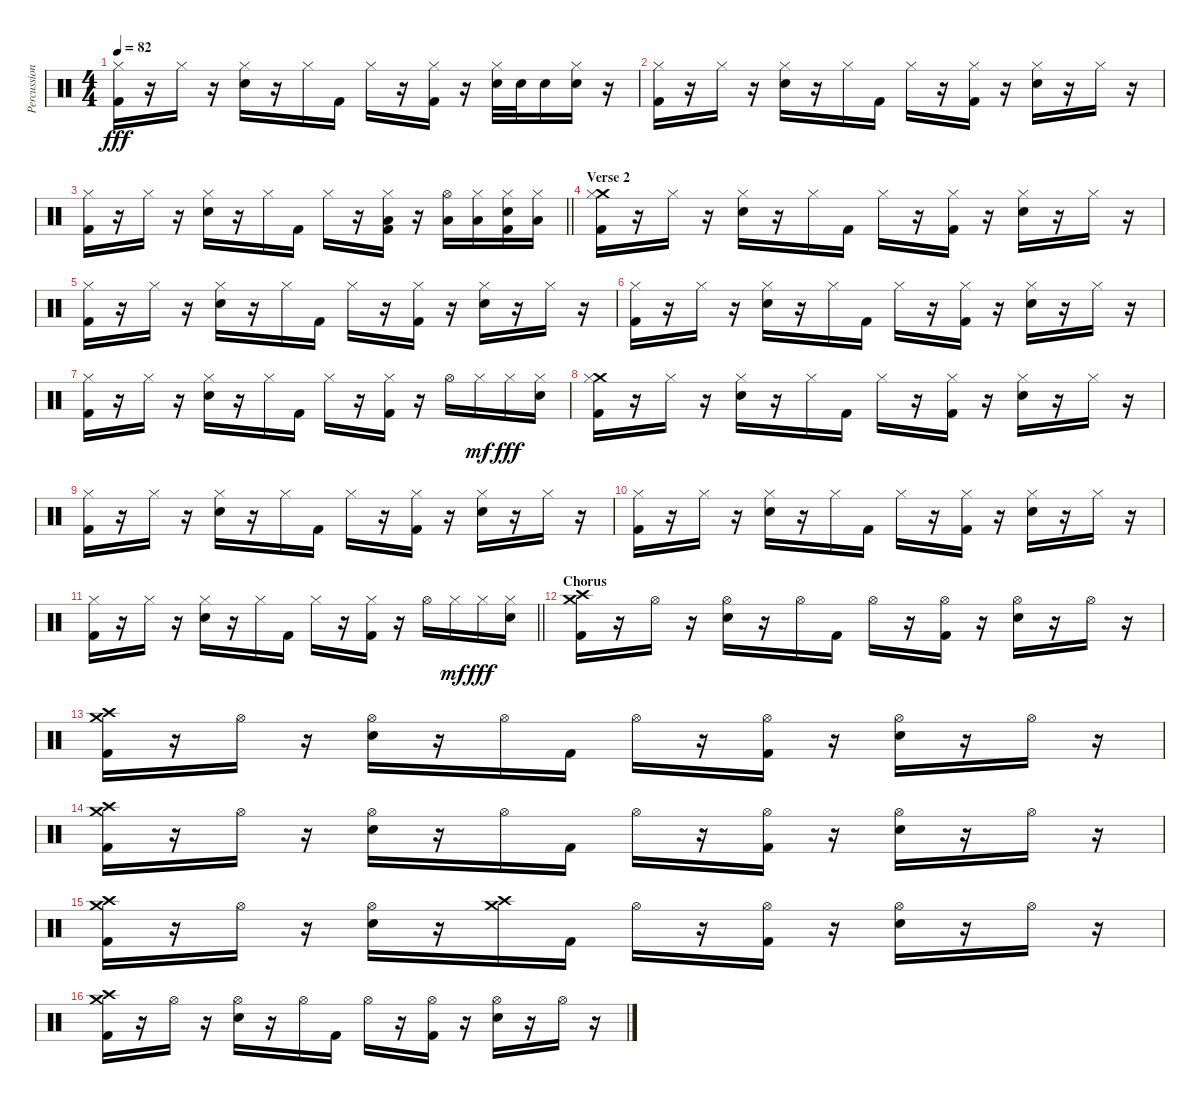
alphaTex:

\track ("Percussion" "Percussion") {instrument percussion}
\staff {score}
\articulation defaults
\ts (4 4)
\tempo 82
\clef neutral
\ks c
("Hi-Hat (closed)" "Kick (hit) 2").16{dy fff} r.16 "Hi-Hat (closed)".16 r.16 ("Hi-Hat (closed)" "Snare (hit) 2").16 r.16 "Hi-Hat (closed)".16 "Kick (hit) 2".16 "Hi-Hat (closed)".16 r.16 ("Hi-Hat (closed)" "Kick (hit) 2").16 r.16 ("Hi-Hat (closed)" "Snare (hit) 2").32 "Snare (hit) 2".32 "Snare (hit) 2".16 ("Hi-Hat (closed)" "Snare (hit) 2").16 r.16 |
("Hi-Hat (closed)" "Kick (hit) 2").16 r.16 "Hi-Hat (closed)".16 r.16 ("Hi-Hat (closed)" "Snare (hit) 2").16 r.16 "Hi-Hat (closed)".16 "Kick (hit) 2".16 "Hi-Hat (closed)".16 r.16 ("Hi-Hat (closed)" "Kick (hit) 2").16 r.16 ("Hi-Hat (closed)" "Snare (hit) 2").16 r.16 "Hi-Hat (closed)".16 r.16 |
\barLineRight lightlight
("Hi-Hat (closed)" "Kick (hit) 2").16 r.16 "Hi-Hat (closed)".16 r.16 ("Hi-Hat (closed)" "Snare (hit) 2").16 r.16 "Hi-Hat (closed)".16 "Kick (hit) 2".16 "Hi-Hat (closed)".16 r.16 ("Hi-Hat (closed)" "Low Floor Tom (hit)" "Kick (hit) 2").16 r.16 ("Hi-Hat (open)" "Low Tom (hit)").16 ("Hi-Hat (closed)" "Low Floor Tom (hit)").16 ("Hi-Hat (closed)" "Snare (hit) 2" "Kick (hit) 2").16 ("Hi-Hat (closed)" "Low Tom (hit)").16 |
\section ("" "Verse 2")
("Crash medium (hit)" "Hi-Hat (closed)" "Kick (hit) 2").16 r.16 "Hi-Hat (closed)".16 r.16 ("Hi-Hat (closed)" "Snare (hit) 2").16 r.16 "Hi-Hat (closed)".16 "Kick (hit) 2".16 "Hi-Hat (closed)".16 r.16 ("Hi-Hat (closed)" "Kick (hit) 2").16 r.16 ("Hi-Hat (closed)" "Snare (hit) 2").16 r.16 "Hi-Hat (closed)".16 r.16 |
("Hi-Hat (closed)" "Kick (hit) 2").16 r.16 "Hi-Hat (closed)".16 r.16 ("Hi-Hat (closed)" "Snare (hit) 2").16 r.16 "Hi-Hat (closed)".16 "Kick (hit) 2".16 "Hi-Hat (closed)".16 r.16 ("Hi-Hat (closed)" "Kick (hit) 2").16 r.16 ("Hi-Hat (closed)" "Snare (hit) 2").16 r.16 "Hi-Hat (closed)".16 r.16 |
("Hi-Hat (closed)" "Kick (hit) 2").16 r.16 "Hi-Hat (closed)".16 r.16 ("Hi-Hat (closed)" "Snare (hit) 2").16 r.16 "Hi-Hat (closed)".16 "Kick (hit) 2".16 "Hi-Hat (closed)".16 r.16 ("Hi-Hat (closed)" "Kick (hit) 2").16 r.16 ("Hi-Hat (closed)" "Snare (hit) 2").16 r.16 "Hi-Hat (closed)".16 r.16 |
("Hi-Hat (closed)" "Kick (hit) 2").16 r.16 "Hi-Hat (closed)".16 r.16 ("Hi-Hat (closed)" "Snare (hit) 2").16 r.16 "Hi-Hat (closed)".16 "Kick (hit) 2".16 "Hi-Hat (closed)".16 r.16 ("Hi-Hat (closed)" "Kick (hit) 2").16 r.16 "Hi-Hat (open)".16 "Hi-Hat (closed)".16{dy mf} "Hi-Hat (closed)".16{dy fff} ("Hi-Hat (closed)" "Snare (hit) 2").16 |
("Crash medium (hit)" "Hi-Hat (closed)" "Kick (hit) 2").16 r.16 "Hi-Hat (closed)".16 r.16 ("Hi-Hat (closed)" "Snare (hit) 2").16 r.16 "Hi-Hat (closed)".16 "Kick (hit) 2".16 "Hi-Hat (closed)".16 r.16 ("Hi-Hat (closed)" "Kick (hit) 2").16 r.16 ("Hi-Hat (closed)" "Snare (hit) 2").16 r.16 "Hi-Hat (closed)".16 r.16 |
("Hi-Hat (closed)" "Kick (hit) 2").16 r.16 "Hi-Hat (closed)".16 r.16 ("Hi-Hat (closed)" "Snare (hit) 2").16 r.16 "Hi-Hat (closed)".16 "Kick (hit) 2".16 "Hi-Hat (closed)".16 r.16 ("Hi-Hat (closed)" "Kick (hit) 2").16 r.16 ("Hi-Hat (closed)" "Snare (hit) 2").16 r.16 "Hi-Hat (closed)".16 r.16 |
("Hi-Hat (closed)" "Kick (hit) 2").16 r.16 "Hi-Hat (closed)".16 r.16 ("Hi-Hat (closed)" "Snare (hit) 2").16 r.16 "Hi-Hat (closed)".16 "Kick (hit) 2".16 "Hi-Hat (closed)".16 r.16 ("Hi-Hat (closed)" "Kick (hit) 2").16 r.16 ("Hi-Hat (closed)" "Snare (hit) 2").16 r.16 "Hi-Hat (closed)".16 r.16 |
\barLineRight lightlight
("Hi-Hat (closed)" "Kick (hit) 2").16 r.16 "Hi-Hat (closed)".16 r.16 ("Hi-Hat (closed)" "Snare (hit) 2").16 r.16 "Hi-Hat (closed)".16 "Kick (hit) 2".16 "Hi-Hat (closed)".16 r.16 ("Hi-Hat (closed)" "Kick (hit) 2").16 r.16 "Hi-Hat (open)".16 "Hi-Hat (closed)".16{dy mf} "Hi-Hat (closed)".16{dy fff} ("Hi-Hat (closed)" "Snare (hit) 2").16 |
\section ("" "Chorus")
("Crash high (hit)" "Crash medium (hit)" "Kick (hit) 2").16 r.16 "Hi-Hat (open)".16 r.16 ("Hi-Hat (open)" "Snare (hit) 2").16 r.16 "Hi-Hat (open)".16 "Kick (hit) 2".16 "Hi-Hat (open)".16 r.16 ("Hi-Hat (open)" "Kick (hit) 2").16 r.16 ("Hi-Hat (open)" "Snare (hit) 2").16 r.16 "Hi-Hat (open)".16 r.16 |
("Crash high (hit)" "Crash medium (hit)" "Kick (hit) 2").16 r.16 "Hi-Hat (open)".16 r.16 ("Hi-Hat (open)" "Snare (hit) 2").16 r.16 "Hi-Hat (open)".16 "Kick (hit) 2".16 "Hi-Hat (open)".16 r.16 ("Hi-Hat (open)" "Kick (hit) 2").16 r.16 ("Hi-Hat (open)" "Snare (hit) 2").16 r.16 "Hi-Hat (open)".16 r.16 |
("Crash high (hit)" "Crash medium (hit)" "Kick (hit) 2").16 r.16 "Hi-Hat (open)".16 r.16 ("Hi-Hat (open)" "Snare (hit) 2").16 r.16 "Hi-Hat (open)".16 "Kick (hit) 2".16 "Hi-Hat (open)".16 r.16 ("Hi-Hat (open)" "Kick (hit) 2").16 r.16 ("Hi-Hat (open)" "Snare (hit) 2").16 r.16 "Hi-Hat (open)".16 r.16 |
("Crash high (hit)" "Crash medium (hit)" "Kick (hit) 2").16 r.16 "Hi-Hat (open)".16 r.16 ("Hi-Hat (open)" "Snare (hit) 2").16 r.16 ("Crash medium (hit)" "Crash high (hit)").16 "Kick (hit) 2".16 "Hi-Hat (open)".16 r.16 ("Hi-Hat (open)" "Kick (hit) 2").16 r.16 ("Hi-Hat (open)" "Snare (hit) 2").16 r.16 "Hi-Hat (open)".16 r.16 |
("Crash high (hit)" "Crash medium (hit)" "Kick (hit) 2").16 r.16 "Hi-Hat (open)".16 r.16 ("Hi-Hat (open)" "Snare (hit) 2").16 r.16 "Hi-Hat (open)".16 "Kick (hit) 2".16 "Hi-Hat (open)".16 r.16 ("Hi-Hat (open)" "Kick (hit) 2").16 r.16 ("Hi-Hat (open)" "Snare (hit) 2").16 r.16 "Hi-Hat (open)".16 r.16
